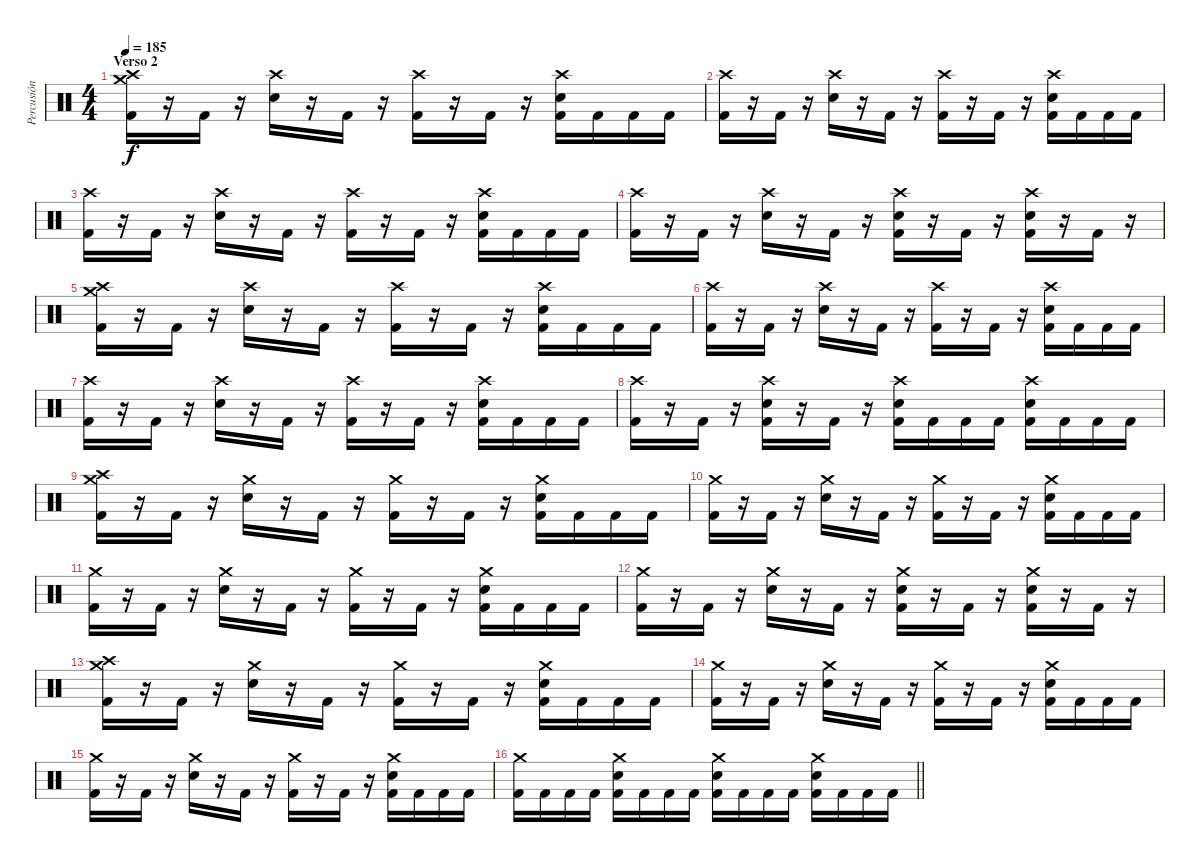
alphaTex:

\track ("Percusión" "Percusión") {instrument percussion}
\staff {score}
\articulation defaults
\ts (4 4)
\section ("" "Verso 2")
\tempo 185
\clef neutral
\ks c
("Crash high (hit)" "Crash medium (hit)" "Kick (hit) 2").16{dy f} r.16 "Kick (hit) 2".16 r.16 ("Crash high (hit)" "Electric Snare (hit)").16 r.16 "Kick (hit) 2".16 r.16 ("Crash high (hit)" "Kick (hit) 2").16 r.16 "Kick (hit) 2".16 r.16 ("Crash high (hit)" "Electric Snare (hit)" "Kick (hit) 2").16 "Kick (hit) 2".16 "Kick (hit) 2".16 "Kick (hit) 2".16 |
("Crash high (hit)" "Kick (hit) 2").16 r.16 "Kick (hit) 2".16 r.16 ("Crash high (hit)" "Electric Snare (hit)").16 r.16 "Kick (hit) 2".16 r.16 ("Crash high (hit)" "Kick (hit) 2").16 r.16 "Kick (hit) 2".16 r.16 ("Crash high (hit)" "Electric Snare (hit)" "Kick (hit) 2").16 "Kick (hit) 2".16 "Kick (hit) 2".16 "Kick (hit) 2".16 |
("Crash high (hit)" "Kick (hit) 2").16 r.16 "Kick (hit) 2".16 r.16 ("Crash high (hit)" "Electric Snare (hit)").16 r.16 "Kick (hit) 2".16 r.16 ("Crash high (hit)" "Kick (hit) 2").16 r.16 "Kick (hit) 2".16 r.16 ("Crash high (hit)" "Electric Snare (hit)" "Kick (hit) 2").16 "Kick (hit) 2".16 "Kick (hit) 2".16 "Kick (hit) 2".16 |
("Crash high (hit)" "Kick (hit) 2").16 r.16 "Kick (hit) 2".16 r.16 ("Crash high (hit)" "Electric Snare (hit)").16 r.16 "Kick (hit) 2".16 r.16 ("Crash high (hit)" "Electric Snare (hit)" "Kick (hit) 2").16 r.16 "Kick (hit) 2".16 r.16 ("Crash high (hit)" "Electric Snare (hit)" "Kick (hit) 2").16 r.16 "Kick (hit) 2".16 r.16 |
("Crash high (hit)" "Crash medium (hit)" "Kick (hit) 2").16 r.16 "Kick (hit) 2".16 r.16 ("Crash high (hit)" "Electric Snare (hit)").16 r.16 "Kick (hit) 2".16 r.16 ("Crash high (hit)" "Kick (hit) 2").16 r.16 "Kick (hit) 2".16 r.16 ("Crash high (hit)" "Electric Snare (hit)" "Kick (hit) 2").16 "Kick (hit) 2".16 "Kick (hit) 2".16 "Kick (hit) 2".16 |
("Crash high (hit)" "Kick (hit) 2").16 r.16 "Kick (hit) 2".16 r.16 ("Crash high (hit)" "Electric Snare (hit)").16 r.16 "Kick (hit) 2".16 r.16 ("Crash high (hit)" "Kick (hit) 2").16 r.16 "Kick (hit) 2".16 r.16 ("Crash high (hit)" "Electric Snare (hit)" "Kick (hit) 2").16 "Kick (hit) 2".16 "Kick (hit) 2".16 "Kick (hit) 2".16 |
("Crash high (hit)" "Kick (hit) 2").16 r.16 "Kick (hit) 2".16 r.16 ("Crash high (hit)" "Electric Snare (hit)").16 r.16 "Kick (hit) 2".16 r.16 ("Crash high (hit)" "Kick (hit) 2").16 r.16 "Kick (hit) 2".16 r.16 ("Crash high (hit)" "Electric Snare (hit)" "Kick (hit) 2").16 "Kick (hit) 2".16 "Kick (hit) 2".16 "Kick (hit) 2".16 |
("Crash high (hit)" "Kick (hit) 2").16 r.16 "Kick (hit) 2".16 r.16 ("Crash high (hit)" "Electric Snare (hit)" "Kick (hit) 2").16 r.16 "Kick (hit) 2".16 r.16 ("Crash high (hit)" "Electric Snare (hit)" "Kick (hit) 2").16 "Kick (hit) 2".16 "Kick (hit) 2".16 "Kick (hit) 2".16 ("Crash high (hit)" "Electric Snare (hit)" "Kick (hit) 2").16 "Kick (hit) 2".16 "Kick (hit) 2".16 "Kick (hit) 2".16 |
("Crash high (hit)" "Crash medium (hit)" "Kick (hit) 2").16 r.16 "Kick (hit) 2".16 r.16 ("Crash medium (hit)" "Electric Snare (hit)").16 r.16 "Kick (hit) 2".16 r.16 ("Crash medium (hit)" "Kick (hit) 2").16 r.16 "Kick (hit) 2".16 r.16 ("Crash medium (hit)" "Electric Snare (hit)" "Kick (hit) 2").16 "Kick (hit) 2".16 "Kick (hit) 2".16 "Kick (hit) 2".16 |
("Crash medium (hit)" "Kick (hit) 2").16 r.16 "Kick (hit) 2".16 r.16 ("Crash medium (hit)" "Electric Snare (hit)").16 r.16 "Kick (hit) 2".16 r.16 ("Crash medium (hit)" "Kick (hit) 2").16 r.16 "Kick (hit) 2".16 r.16 ("Crash medium (hit)" "Electric Snare (hit)" "Kick (hit) 2").16 "Kick (hit) 2".16 "Kick (hit) 2".16 "Kick (hit) 2".16 |
("Crash medium (hit)" "Kick (hit) 2").16 r.16 "Kick (hit) 2".16 r.16 ("Crash medium (hit)" "Electric Snare (hit)").16 r.16 "Kick (hit) 2".16 r.16 ("Crash medium (hit)" "Kick (hit) 2").16 r.16 "Kick (hit) 2".16 r.16 ("Crash medium (hit)" "Electric Snare (hit)" "Kick (hit) 2").16 "Kick (hit) 2".16 "Kick (hit) 2".16 "Kick (hit) 2".16 |
("Crash medium (hit)" "Kick (hit) 2").16 r.16 "Kick (hit) 2".16 r.16 ("Crash medium (hit)" "Electric Snare (hit)").16 r.16 "Kick (hit) 2".16 r.16 ("Crash medium (hit)" "Electric Snare (hit)" "Kick (hit) 2").16 r.16 "Kick (hit) 2".16 r.16 ("Crash medium (hit)" "Electric Snare (hit)" "Kick (hit) 2").16 r.16 "Kick (hit) 2".16 r.16 |
("Crash high (hit)" "Crash medium (hit)" "Kick (hit) 2").16 r.16 "Kick (hit) 2".16 r.16 ("Crash medium (hit)" "Electric Snare (hit)").16 r.16 "Kick (hit) 2".16 r.16 ("Crash medium (hit)" "Kick (hit) 2").16 r.16 "Kick (hit) 2".16 r.16 ("Crash medium (hit)" "Electric Snare (hit)" "Kick (hit) 2").16 "Kick (hit) 2".16 "Kick (hit) 2".16 "Kick (hit) 2".16 |
("Crash medium (hit)" "Kick (hit) 2").16 r.16 "Kick (hit) 2".16 r.16 ("Crash medium (hit)" "Electric Snare (hit)").16 r.16 "Kick (hit) 2".16 r.16 ("Crash medium (hit)" "Kick (hit) 2").16 r.16 "Kick (hit) 2".16 r.16 ("Crash medium (hit)" "Electric Snare (hit)" "Kick (hit) 2").16 "Kick (hit) 2".16 "Kick (hit) 2".16 "Kick (hit) 2".16 |
("Crash medium (hit)" "Kick (hit) 2").16 r.16 "Kick (hit) 2".16 r.16 ("Crash medium (hit)" "Electric Snare (hit)").16 r.16 "Kick (hit) 2".16 r.16 ("Crash medium (hit)" "Kick (hit) 2").16 r.16 "Kick (hit) 2".16 r.16 ("Crash medium (hit)" "Electric Snare (hit)" "Kick (hit) 2").16 "Kick (hit) 2".16 "Kick (hit) 2".16 "Kick (hit) 2".16 |
\barLineRight lightlight
("Crash medium (hit)" "Kick (hit) 2").16 "Kick (hit) 2".16 "Kick (hit) 2".16 "Kick (hit) 2".16 ("Crash medium (hit)" "Electric Snare (hit)" "Kick (hit) 2").16 "Kick (hit) 2".16 "Kick (hit) 2".16 "Kick (hit) 2".16 ("Crash medium (hit)" "Electric Snare (hit)" "Kick (hit) 2").16 "Kick (hit) 2".16 "Kick (hit) 2".16 "Kick (hit) 2".16 ("Crash medium (hit)" "Electric Snare (hit)" "Kick (hit) 2").16 "Kick (hit) 2".16 "Kick (hit) 2".16 "Kick (hit) 2".16
